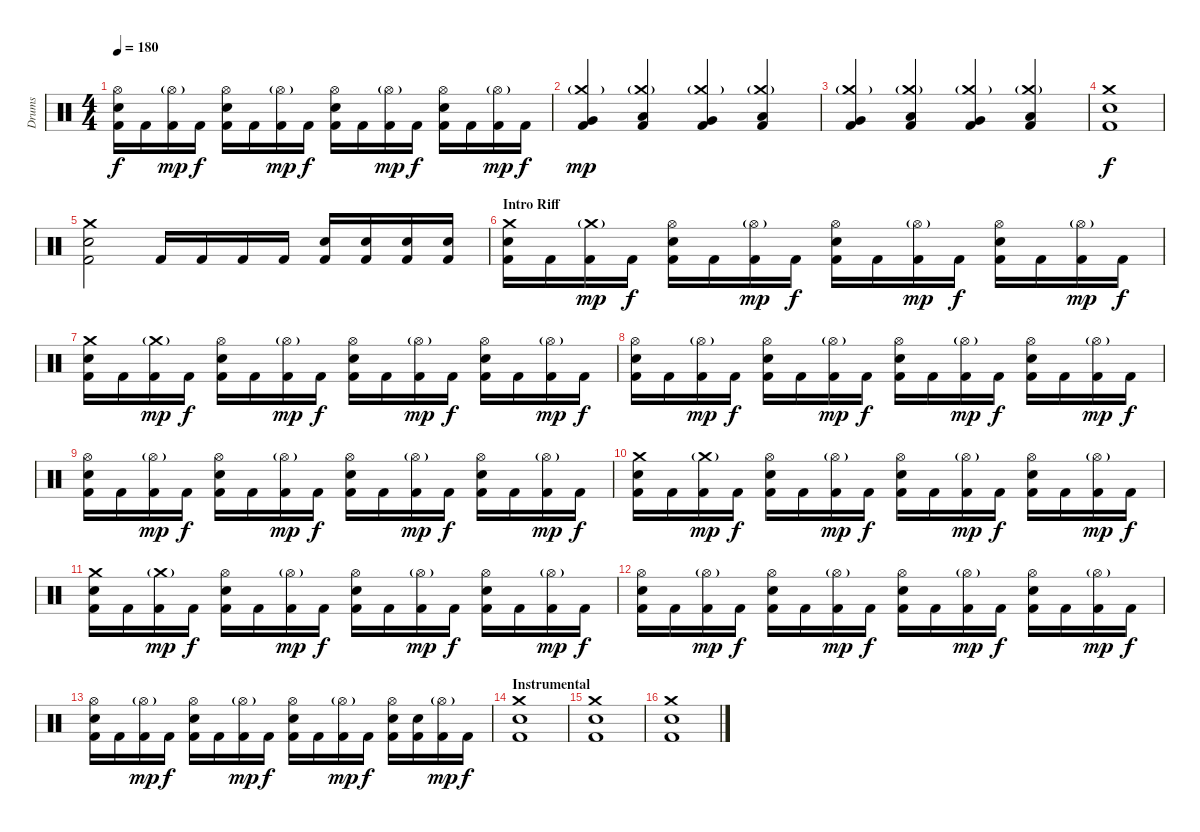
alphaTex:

\track ("Drums" "Drums") {instrument percussion}
\staff {score}
\articulation defaults
\ts (4 4)
\tempo 180
\clef neutral
\ks c
("Hi-Hat (open)" "Electric Snare (hit)" "Kick (hit) 2").16{dy f} "Kick (hit) 2".16 ("Hi-Hat (open)"{g} "Kick (hit) 2").16{dy mp} "Kick (hit) 2".16{dy f} ("Hi-Hat (open)" "Electric Snare (hit)" "Kick (hit) 2").16 "Kick (hit) 2".16 ("Hi-Hat (open)"{g} "Kick (hit) 2").16{dy mp} "Kick (hit) 2".16{dy f} ("Hi-Hat (open)" "Electric Snare (hit)" "Kick (hit) 2").16 "Kick (hit) 2".16 ("Hi-Hat (open)"{g} "Kick (hit) 2").16{dy mp} "Kick (hit) 2".16{dy f} ("Hi-Hat (open)" "Electric Snare (hit)" "Kick (hit) 2").16 "Kick (hit) 2".16 ("Hi-Hat (open)"{g} "Kick (hit) 2").16{dy mp} "Kick (hit) 2".16{dy f} |
("Crash medium (hit)"{g} "Very Low Tom (hit)" "Kick (hit) 2").4{dy mp} ("Crash medium (hit)"{g} "Low Floor Tom (hit)" "Kick (hit) 2").4 ("Crash medium (hit)"{g} "Very Low Tom (hit)" "Kick (hit) 2").4 ("Crash medium (hit)"{g} "Low Floor Tom (hit)" "Kick (hit) 2").4 |
("Crash medium (hit)"{g} "Very Low Tom (hit)" "Kick (hit) 2").4 ("Crash medium (hit)"{g} "Low Floor Tom (hit)" "Kick (hit) 2").4 ("Crash medium (hit)"{g} "Very Low Tom (hit)" "Kick (hit) 2").4 ("Crash medium (hit)"{g} "Low Floor Tom (hit)" "Kick (hit) 2").4 |
("Crash medium (hit)" "Electric Snare (hit)" "Kick (hit) 2").1{dy f} |
("Crash medium (hit)" "Electric Snare (hit)" "Kick (hit) 2").2 "Kick (hit) 2".16 "Kick (hit) 2".16 "Kick (hit) 2".16 "Kick (hit) 2".16 ("Electric Snare (hit)" "Kick (hit) 2").16 ("Electric Snare (hit)" "Kick (hit) 2").16 ("Electric Snare (hit)" "Kick (hit) 2").16 ("Electric Snare (hit)" "Kick (hit) 2").16 |
\section ("" "Intro Riff")
("Crash medium (hit)" "Electric Snare (hit)" "Kick (hit) 2").16 "Kick (hit) 2".16 ("Crash medium (hit)"{g} "Kick (hit) 2").16{dy mp} "Kick (hit) 2".16{dy f} ("Hi-Hat (open)" "Electric Snare (hit)" "Kick (hit) 2").16 "Kick (hit) 2".16 ("Hi-Hat (open)"{g} "Kick (hit) 2").16{dy mp} "Kick (hit) 2".16{dy f} ("Hi-Hat (open)" "Electric Snare (hit)" "Kick (hit) 2").16 "Kick (hit) 2".16 ("Hi-Hat (open)"{g} "Kick (hit) 2").16{dy mp} "Kick (hit) 2".16{dy f} ("Hi-Hat (open)" "Electric Snare (hit)" "Kick (hit) 2").16 "Kick (hit) 2".16 ("Hi-Hat (open)"{g} "Kick (hit) 2").16{dy mp} "Kick (hit) 2".16{dy f} |
("Crash medium (hit)" "Electric Snare (hit)" "Kick (hit) 2").16 "Kick (hit) 2".16 ("Crash medium (hit)"{g} "Kick (hit) 2").16{dy mp} "Kick (hit) 2".16{dy f} ("Hi-Hat (open)" "Electric Snare (hit)" "Kick (hit) 2").16 "Kick (hit) 2".16 ("Hi-Hat (open)"{g} "Kick (hit) 2").16{dy mp} "Kick (hit) 2".16{dy f} ("Hi-Hat (open)" "Electric Snare (hit)" "Kick (hit) 2").16 "Kick (hit) 2".16 ("Hi-Hat (open)"{g} "Kick (hit) 2").16{dy mp} "Kick (hit) 2".16{dy f} ("Hi-Hat (open)" "Electric Snare (hit)" "Kick (hit) 2").16 "Kick (hit) 2".16 ("Hi-Hat (open)"{g} "Kick (hit) 2").16{dy mp} "Kick (hit) 2".16{dy f} |
("Hi-Hat (open)" "Electric Snare (hit)" "Kick (hit) 2").16 "Kick (hit) 2".16 ("Hi-Hat (open)"{g} "Kick (hit) 2").16{dy mp} "Kick (hit) 2".16{dy f} ("Hi-Hat (open)" "Electric Snare (hit)" "Kick (hit) 2").16 "Kick (hit) 2".16 ("Hi-Hat (open)"{g} "Kick (hit) 2").16{dy mp} "Kick (hit) 2".16{dy f} ("Hi-Hat (open)" "Electric Snare (hit)" "Kick (hit) 2").16 "Kick (hit) 2".16 ("Hi-Hat (open)"{g} "Kick (hit) 2").16{dy mp} "Kick (hit) 2".16{dy f} ("Hi-Hat (open)" "Electric Snare (hit)" "Kick (hit) 2").16 "Kick (hit) 2".16 ("Hi-Hat (open)"{g} "Kick (hit) 2").16{dy mp} "Kick (hit) 2".16{dy f} |
("Hi-Hat (open)" "Electric Snare (hit)" "Kick (hit) 2").16 "Kick (hit) 2".16 ("Hi-Hat (open)"{g} "Kick (hit) 2").16{dy mp} "Kick (hit) 2".16{dy f} ("Hi-Hat (open)" "Electric Snare (hit)" "Kick (hit) 2").16 "Kick (hit) 2".16 ("Hi-Hat (open)"{g} "Kick (hit) 2").16{dy mp} "Kick (hit) 2".16{dy f} ("Hi-Hat (open)" "Electric Snare (hit)" "Kick (hit) 2").16 "Kick (hit) 2".16 ("Hi-Hat (open)"{g} "Kick (hit) 2").16{dy mp} "Kick (hit) 2".16{dy f} ("Hi-Hat (open)" "Electric Snare (hit)" "Kick (hit) 2").16 "Kick (hit) 2".16 ("Hi-Hat (open)"{g} "Kick (hit) 2").16{dy mp} "Kick (hit) 2".16{dy f} |
("Crash medium (hit)" "Electric Snare (hit)" "Kick (hit) 2").16 "Kick (hit) 2".16 ("Crash medium (hit)"{g} "Kick (hit) 2").16{dy mp} "Kick (hit) 2".16{dy f} ("Hi-Hat (open)" "Electric Snare (hit)" "Kick (hit) 2").16 "Kick (hit) 2".16 ("Hi-Hat (open)"{g} "Kick (hit) 2").16{dy mp} "Kick (hit) 2".16{dy f} ("Hi-Hat (open)" "Electric Snare (hit)" "Kick (hit) 2").16 "Kick (hit) 2".16 ("Hi-Hat (open)"{g} "Kick (hit) 2").16{dy mp} "Kick (hit) 2".16{dy f} ("Hi-Hat (open)" "Electric Snare (hit)" "Kick (hit) 2").16 "Kick (hit) 2".16 ("Hi-Hat (open)"{g} "Kick (hit) 2").16{dy mp} "Kick (hit) 2".16{dy f} |
("Crash medium (hit)" "Electric Snare (hit)" "Kick (hit) 2").16 "Kick (hit) 2".16 ("Crash medium (hit)"{g} "Kick (hit) 2").16{dy mp} "Kick (hit) 2".16{dy f} ("Hi-Hat (open)" "Electric Snare (hit)" "Kick (hit) 2").16 "Kick (hit) 2".16 ("Hi-Hat (open)"{g} "Kick (hit) 2").16{dy mp} "Kick (hit) 2".16{dy f} ("Hi-Hat (open)" "Electric Snare (hit)" "Kick (hit) 2").16 "Kick (hit) 2".16 ("Hi-Hat (open)"{g} "Kick (hit) 2").16{dy mp} "Kick (hit) 2".16{dy f} ("Hi-Hat (open)" "Electric Snare (hit)" "Kick (hit) 2").16 "Kick (hit) 2".16 ("Hi-Hat (open)"{g} "Kick (hit) 2").16{dy mp} "Kick (hit) 2".16{dy f} |
("Hi-Hat (open)" "Electric Snare (hit)" "Kick (hit) 2").16 "Kick (hit) 2".16 ("Hi-Hat (open)"{g} "Kick (hit) 2").16{dy mp} "Kick (hit) 2".16{dy f} ("Hi-Hat (open)" "Electric Snare (hit)" "Kick (hit) 2").16 "Kick (hit) 2".16 ("Hi-Hat (open)"{g} "Kick (hit) 2").16{dy mp} "Kick (hit) 2".16{dy f} ("Hi-Hat (open)" "Electric Snare (hit)" "Kick (hit) 2").16 "Kick (hit) 2".16 ("Hi-Hat (open)"{g} "Kick (hit) 2").16{dy mp} "Kick (hit) 2".16{dy f} ("Hi-Hat (open)" "Electric Snare (hit)" "Kick (hit) 2").16 "Kick (hit) 2".16 ("Hi-Hat (open)"{g} "Kick (hit) 2").16{dy mp} "Kick (hit) 2".16{dy f} |
("Hi-Hat (open)" "Electric Snare (hit)" "Kick (hit) 2").16 "Kick (hit) 2".16 ("Hi-Hat (open)"{g} "Kick (hit) 2").16{dy mp} "Kick (hit) 2".16{dy f} ("Hi-Hat (open)" "Electric Snare (hit)" "Kick (hit) 2").16 "Kick (hit) 2".16 ("Hi-Hat (open)"{g} "Kick (hit) 2").16{dy mp} "Kick (hit) 2".16{dy f} ("Hi-Hat (open)" "Electric Snare (hit)" "Kick (hit) 2").16 "Kick (hit) 2".16 ("Hi-Hat (open)"{g} "Kick (hit) 2").16{dy mp} "Kick (hit) 2".16{dy f} ("Hi-Hat (open)" "Electric Snare (hit)" "Kick (hit) 2").16 ("Electric Snare (hit)" "Kick (hit) 2").16 ("Hi-Hat (open)"{g} "Kick (hit) 2").16{dy mp} "Kick (hit) 2".16{dy f} |
\section ("" "Instrumental")
("Crash medium (hit)" "Electric Snare (hit)" "Kick (hit) 2").1 |
("Crash medium (hit)" "Electric Snare (hit)" "Kick (hit) 2").1 |
("Crash medium (hit)" "Electric Snare (hit)" "Kick (hit) 2").1
